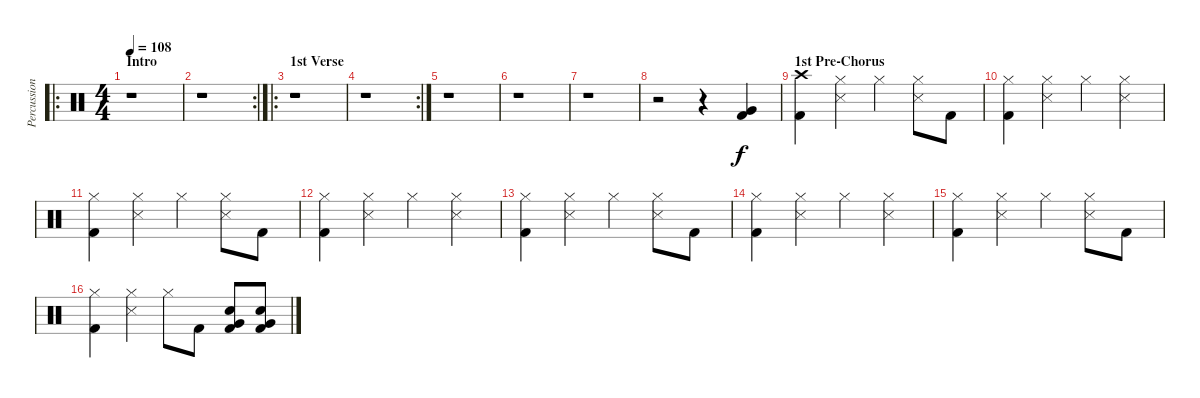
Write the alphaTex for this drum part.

\track ("Percussion" "Percussion") {instrument percussion}
\staff {score}
\articulation defaults
\ro
\ts (4 4)
\section ("" "Intro")
\tempo 108
\clef neutral
\ks c
r.1{dy f} |
\rc 2
r.1 |
\ro
\section ("" "1st Verse")
r.1 |
\rc 2
r.1 |
r.1 |
r.1 |
r.1 |
r.2 r.4 ("Very Low Tom (hit)" "Kick (hit) 2").4 |
\section ("" "1st Pre-Chorus")
("Crash high (hit)" "Kick (hit) 2").4 ("Hi-Hat (closed)" "Snare (side stick) 3").4 "Hi-Hat (closed)".4 ("Hi-Hat (closed)" "Snare (side stick) 3").8 "Kick (hit) 2".8 |
("Hi-Hat (closed)" "Kick (hit) 2").4 ("Hi-Hat (closed)" "Snare (side stick) 3").4 "Hi-Hat (closed)".4 ("Hi-Hat (closed)" "Snare (side stick) 3").4 |
("Hi-Hat (closed)" "Kick (hit) 2").4 ("Hi-Hat (closed)" "Snare (side stick) 3").4 "Hi-Hat (closed)".4 ("Hi-Hat (closed)" "Snare (side stick) 3").8 "Kick (hit) 2".8 |
("Hi-Hat (closed)" "Kick (hit) 2").4 ("Hi-Hat (closed)" "Snare (side stick) 3").4 "Hi-Hat (closed)".4 ("Hi-Hat (closed)" "Snare (side stick) 3").4 |
("Hi-Hat (closed)" "Kick (hit) 2").4 ("Hi-Hat (closed)" "Snare (side stick) 3").4 "Hi-Hat (closed)".4 ("Hi-Hat (closed)" "Snare (side stick) 3").8 "Kick (hit) 2".8 |
("Hi-Hat (closed)" "Kick (hit) 2").4 ("Hi-Hat (closed)" "Snare (side stick) 3").4 "Hi-Hat (closed)".4 ("Hi-Hat (closed)" "Snare (side stick) 3").4 |
("Hi-Hat (closed)" "Kick (hit) 2").4 ("Hi-Hat (closed)" "Snare (side stick) 3").4 "Hi-Hat (closed)".4 ("Hi-Hat (closed)" "Snare (side stick) 3").8 "Kick (hit) 2".8 |
("Hi-Hat (closed)" "Kick (hit) 2").4 ("Hi-Hat (closed)" "Snare (side stick) 3").4 "Hi-Hat (closed)".8 "Kick (hit) 2".8 ("Very Low Tom (hit)" "Snare (hit) 2" "Kick (hit) 2").8 ("Very Low Tom (hit)" "Snare (hit) 2" "Kick (hit) 2").8
